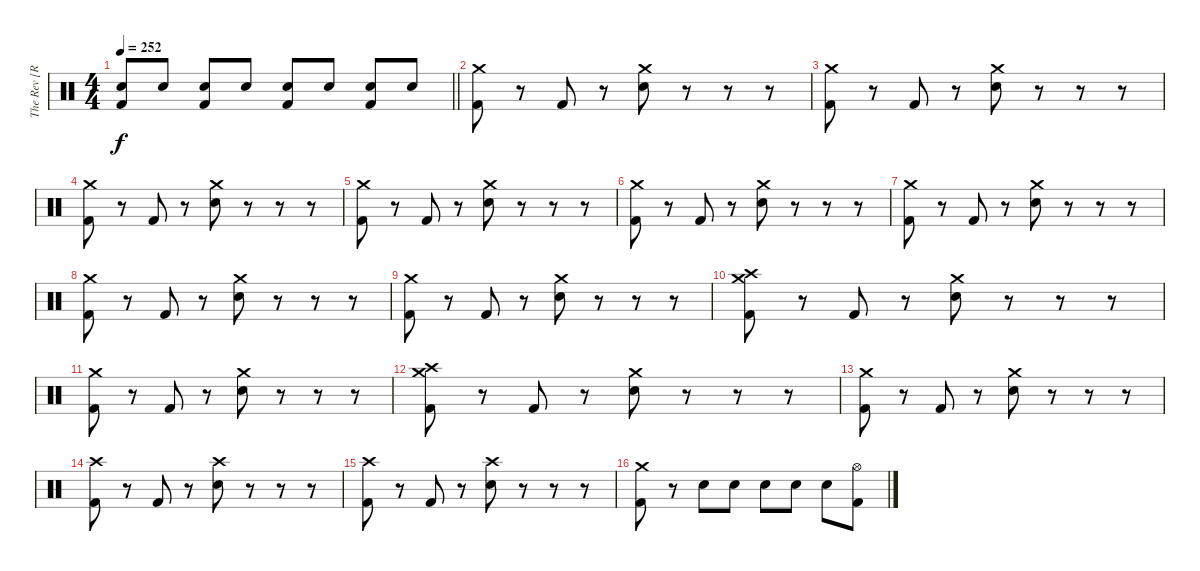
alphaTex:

\track ("The Rev [R.I.P]" "The Rev [R") {instrument percussion}
\staff {score}
\articulation defaults
\ts (4 4)
\tempo 252
\clef neutral
\barLineRight lightlight
\ks c
("Electric Snare (hit)" "Kick (hit) 2").8{dy f} "Electric Snare (hit)".8 ("Electric Snare (hit)" "Kick (hit) 2").8 "Electric Snare (hit)".8 ("Electric Snare (hit)" "Kick (hit) 2").8 "Electric Snare (hit)".8 ("Electric Snare (hit)" "Kick (hit) 2").8 "Electric Snare (hit)".8 |
("Crash medium (hit)" "Kick (hit) 2").8 r.8 "Kick (hit) 2".8 r.8 ("Crash medium (hit)" "Electric Snare (hit)").8 r.8 r.8 r.8 |
("Crash medium (hit)" "Kick (hit) 2").8 r.8 "Kick (hit) 2".8 r.8 ("Crash medium (hit)" "Electric Snare (hit)").8 r.8 r.8 r.8 |
("Crash medium (hit)" "Kick (hit) 2").8 r.8 "Kick (hit) 2".8 r.8 ("Crash medium (hit)" "Electric Snare (hit)").8 r.8 r.8 r.8 |
("Crash medium (hit)" "Kick (hit) 2").8 r.8 "Kick (hit) 2".8 r.8 ("Crash medium (hit)" "Electric Snare (hit)").8 r.8 r.8 r.8 |
("Crash medium (hit)" "Kick (hit) 2").8 r.8 "Kick (hit) 2".8 r.8 ("Crash medium (hit)" "Electric Snare (hit)").8 r.8 r.8 r.8 |
("Crash medium (hit)" "Kick (hit) 2").8 r.8 "Kick (hit) 2".8 r.8 ("Crash medium (hit)" "Electric Snare (hit)").8 r.8 r.8 r.8 |
("Crash medium (hit)" "Kick (hit) 2").8 r.8 "Kick (hit) 2".8 r.8 ("Crash medium (hit)" "Electric Snare (hit)").8 r.8 r.8 r.8 |
("Crash medium (hit)" "Kick (hit) 2").8 r.8 "Kick (hit) 2".8 r.8 ("Crash medium (hit)" "Electric Snare (hit)").8 r.8 r.8 r.8 |
("Crash high (hit)" "Crash medium (hit)" "Kick (hit) 2").8 r.8 "Kick (hit) 2".8 r.8 ("Crash medium (hit)" "Electric Snare (hit)").8 r.8 r.8 r.8 |
("Crash medium (hit)" "Kick (hit) 2").8 r.8 "Kick (hit) 2".8 r.8 ("Crash medium (hit)" "Electric Snare (hit)").8 r.8 r.8 r.8 |
("Crash high (hit)" "Crash medium (hit)" "Kick (hit) 2").8 r.8 "Kick (hit) 2".8 r.8 ("Crash medium (hit)" "Electric Snare (hit)").8 r.8 r.8 r.8 |
("Crash medium (hit)" "Kick (hit) 2").8 r.8 "Kick (hit) 2".8 r.8 ("Crash medium (hit)" "Electric Snare (hit)").8 r.8 r.8 r.8 |
("Crash high (hit)" "Kick (hit) 2").8 r.8 "Kick (hit) 2".8 r.8 ("Crash high (hit)" "Electric Snare (hit)").8 r.8 r.8 r.8 |
("Crash high (hit)" "Kick (hit) 2").8 r.8 "Kick (hit) 2".8 r.8 ("Crash high (hit)" "Electric Snare (hit)").8 r.8 r.8 r.8 |
("Crash medium (hit)" "Kick (hit) 2").8 r.8 "Electric Snare (hit)".8 "Electric Snare (hit)".8 "Electric Snare (hit)".8 "Electric Snare (hit)".8 "Electric Snare (hit)".8 ("Hi-Hat (open)" "Kick (hit) 2").8
